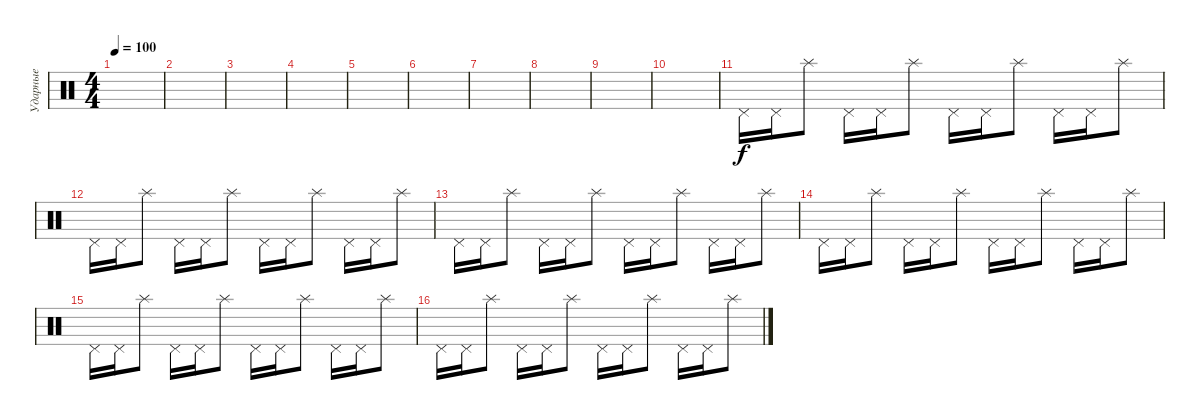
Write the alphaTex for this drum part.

\track ("Ударные" "Ударные") {instrument percussion}
\staff {score}
\articulation defaults
\ts (4 4)
\tempo 100
\clef neutral
\ks c
|
|
|
|
|
|
|
|
|
|
"Pedal Hi-Hat (hit)".16 "Pedal Hi-Hat (hit)".16 "Splash (hit)".8 "Pedal Hi-Hat (hit)".16 "Pedal Hi-Hat (hit)".16 "Splash (hit)".8 "Pedal Hi-Hat (hit)".16 "Pedal Hi-Hat (hit)".16 "Splash (hit)".8 "Pedal Hi-Hat (hit)".16 "Pedal Hi-Hat (hit)".16 "Splash (hit)".8 |
"Pedal Hi-Hat (hit)".16 "Pedal Hi-Hat (hit)".16 "Splash (hit)".8 "Pedal Hi-Hat (hit)".16 "Pedal Hi-Hat (hit)".16 "Splash (hit)".8 "Pedal Hi-Hat (hit)".16 "Pedal Hi-Hat (hit)".16 "Splash (hit)".8 "Pedal Hi-Hat (hit)".16 "Pedal Hi-Hat (hit)".16 "Splash (hit)".8 |
"Pedal Hi-Hat (hit)".16 "Pedal Hi-Hat (hit)".16 "Splash (hit)".8 "Pedal Hi-Hat (hit)".16 "Pedal Hi-Hat (hit)".16 "Splash (hit)".8 "Pedal Hi-Hat (hit)".16 "Pedal Hi-Hat (hit)".16 "Splash (hit)".8 "Pedal Hi-Hat (hit)".16 "Pedal Hi-Hat (hit)".16 "Splash (hit)".8 |
"Pedal Hi-Hat (hit)".16 "Pedal Hi-Hat (hit)".16 "Splash (hit)".8 "Pedal Hi-Hat (hit)".16 "Pedal Hi-Hat (hit)".16 "Splash (hit)".8 "Pedal Hi-Hat (hit)".16 "Pedal Hi-Hat (hit)".16 "Splash (hit)".8 "Pedal Hi-Hat (hit)".16 "Pedal Hi-Hat (hit)".16 "Splash (hit)".8 |
"Pedal Hi-Hat (hit)".16 "Pedal Hi-Hat (hit)".16 "Splash (hit)".8 "Pedal Hi-Hat (hit)".16 "Pedal Hi-Hat (hit)".16 "Splash (hit)".8 "Pedal Hi-Hat (hit)".16 "Pedal Hi-Hat (hit)".16 "Splash (hit)".8 "Pedal Hi-Hat (hit)".16 "Pedal Hi-Hat (hit)".16 "Splash (hit)".8 |
"Pedal Hi-Hat (hit)".16 "Pedal Hi-Hat (hit)".16 "Splash (hit)".8 "Pedal Hi-Hat (hit)".16 "Pedal Hi-Hat (hit)".16 "Splash (hit)".8 "Pedal Hi-Hat (hit)".16 "Pedal Hi-Hat (hit)".16 "Splash (hit)".8 "Pedal Hi-Hat (hit)".16 "Pedal Hi-Hat (hit)".16 "Splash (hit)".8
